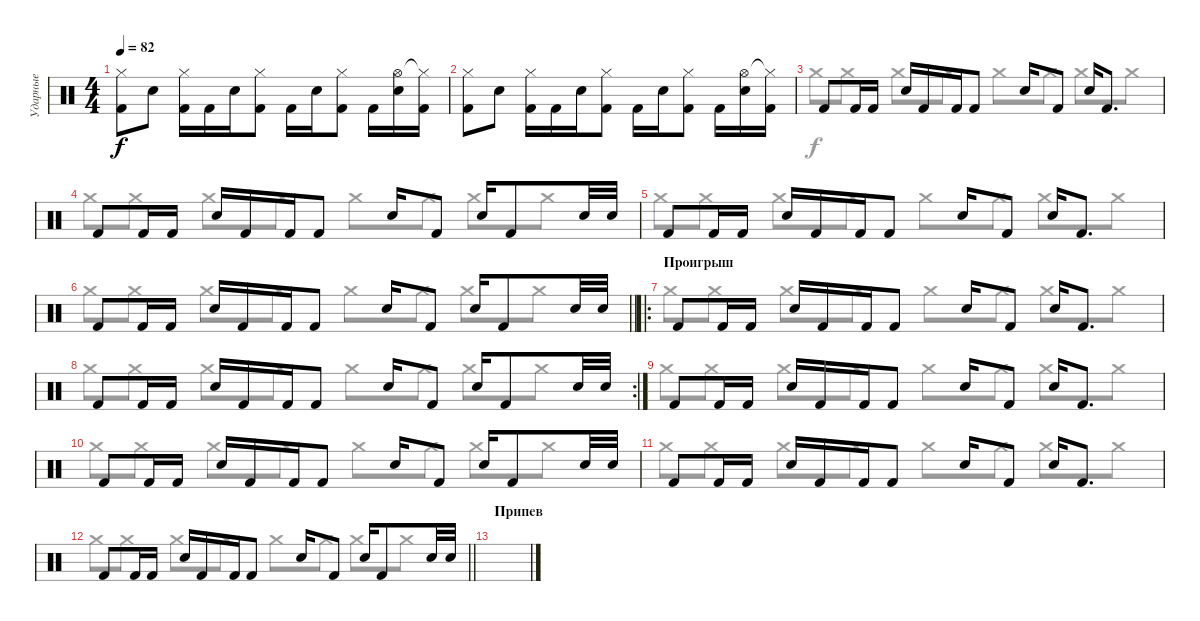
\track ("Ударные" "Ударные") {instrument percussion}
\staff {score}
\articulation defaults
\voice
\ts (4 4)
\tempo 82
\clef neutral
\ks c
("Hi-Hat (closed)" "Kick (hit) 2").8{dy f} "Snare (hit) 2".8 ("Hi-Hat (closed)" "Kick (hit) 2").16 "Kick (hit) 2".16 "Snare (hit) 2".16 ("Hi-Hat (closed)" "Kick (hit) 2").8 "Kick (hit) 2".16 "Snare (hit) 2".16 ("Hi-Hat (closed)" "Kick (hit) 2").8 "Kick (hit) 2".16 ("Hi-Hat (open)" "Snare (hit) 2").16 ("Hi-Hat (closed)"{t} "Kick (hit) 2").16 |
("Hi-Hat (closed)" "Kick (hit) 2").8 "Snare (hit) 2".8 ("Hi-Hat (closed)" "Kick (hit) 2").16 "Kick (hit) 2".16 "Snare (hit) 2".16 ("Hi-Hat (closed)" "Kick (hit) 2").8 "Kick (hit) 2".16 "Snare (hit) 2".16 ("Hi-Hat (closed)" "Kick (hit) 2").8 "Kick (hit) 2".16 ("Hi-Hat (open)" "Snare (hit) 2").16 ("Hi-Hat (closed)"{t} "Kick (hit) 2").16 |
"Kick (hit) 2".8 "Kick (hit) 2".16 "Kick (hit) 2".16 "Snare (hit) 2".16 "Kick (hit) 2".16 "Kick (hit) 2".16 "Kick (hit) 2".8 "Snare (hit) 2".16 "Kick (hit) 2".8 "Snare (hit) 2".16 "Kick (hit) 2".8{d} |
"Kick (hit) 2".8 "Kick (hit) 2".16 "Kick (hit) 2".16 "Snare (hit) 2".16 "Kick (hit) 2".16 "Kick (hit) 2".16 "Kick (hit) 2".8 "Snare (hit) 2".16 "Kick (hit) 2".8 "Snare (hit) 2".16 "Kick (hit) 2".8 "Snare (hit) 2".32 "Snare (hit) 2".32 |
"Kick (hit) 2".8 "Kick (hit) 2".16 "Kick (hit) 2".16 "Snare (hit) 2".16 "Kick (hit) 2".16 "Kick (hit) 2".16 "Kick (hit) 2".8 "Snare (hit) 2".16 "Kick (hit) 2".8 "Snare (hit) 2".16 "Kick (hit) 2".8{d} |
\barLineRight lightlight "Kick (hit) 2".8 "Kick (hit) 2".16 "Kick (hit) 2".16 "Snare (hit) 2".16 "Kick (hit) 2".16 "Kick (hit) 2".16 "Kick (hit) 2".8 "Snare (hit) 2".16 "Kick (hit) 2".8 "Snare (hit) 2".16 "Kick (hit) 2".8 "Snare (hit) 2".32 "Snare (hit) 2".32
|
\ro
\section ("" "Проигрыш")
"Kick (hit) 2".8 "Kick (hit) 2".16 "Kick (hit) 2".16 "Snare (hit) 2".16 "Kick (hit) 2".16 "Kick (hit) 2".16 "Kick (hit) 2".8 "Snare (hit) 2".16 "Kick (hit) 2".8 "Snare (hit) 2".16 "Kick (hit) 2".8{d} |
\rc 2 "Kick (hit) 2".8 "Kick (hit) 2".16 "Kick (hit) 2".16 "Snare (hit) 2".16 "Kick (hit) 2".16 "Kick (hit) 2".16 "Kick (hit) 2".8 "Snare (hit) 2".16 "Kick (hit) 2".8 "Snare (hit) 2".16 "Kick (hit) 2".8 "Snare (hit) 2".32 "Snare (hit) 2".32
|
"Kick (hit) 2".8 "Kick (hit) 2".16 "Kick (hit) 2".16 "Snare (hit) 2".16 "Kick (hit) 2".16 "Kick (hit) 2".16 "Kick (hit) 2".8 "Snare (hit) 2".16 "Kick (hit) 2".8 "Snare (hit) 2".16 "Kick (hit) 2".8{d} |
"Kick (hit) 2".8 "Kick (hit) 2".16 "Kick (hit) 2".16 "Snare (hit) 2".16 "Kick (hit) 2".16 "Kick (hit) 2".16 "Kick (hit) 2".8 "Snare (hit) 2".16 "Kick (hit) 2".8 "Snare (hit) 2".16 "Kick (hit) 2".8 "Snare (hit) 2".32 "Snare (hit) 2".32 |
"Kick (hit) 2".8 "Kick (hit) 2".16 "Kick (hit) 2".16 "Snare (hit) 2".16 "Kick (hit) 2".16 "Kick (hit) 2".16 "Kick (hit) 2".8 "Snare (hit) 2".16 "Kick (hit) 2".8 "Snare (hit) 2".16 "Kick (hit) 2".8{d} |
\barLineRight lightlight "Kick (hit) 2".8 "Kick (hit) 2".16 "Kick (hit) 2".16 "Snare (hit) 2".16 "Kick (hit) 2".16 "Kick (hit) 2".16 "Kick (hit) 2".8 "Snare (hit) 2".16 "Kick (hit) 2".8 "Snare (hit) 2".16 "Kick (hit) 2".8 "Snare (hit) 2".32 "Snare (hit) 2".32
|
\section ("" "Припев")
|
|
|
\voice
\clef neutral
\ottava regular
\simile none
\ks c
|
|
"Crash medium (hit)".8 "Crash medium (hit)".8 "Crash medium (hit)".8 "Crash medium (hit)".8 "Crash medium (hit)".8 "Crash medium (hit)".8 "Crash medium (hit)".8 "Crash medium (hit)".8 |
"Crash medium (hit)".8 "Crash medium (hit)".8 "Crash medium (hit)".8 "Crash medium (hit)".8 "Crash medium (hit)".8 "Crash medium (hit)".8 "Crash medium (hit)".8 "Crash medium (hit)".8 |
"Crash medium (hit)".8 "Crash medium (hit)".8 "Crash medium (hit)".8 "Crash medium (hit)".8 "Crash medium (hit)".8 "Crash medium (hit)".8 "Crash medium (hit)".8 "Crash medium (hit)".8 |
\barLineRight lightlight "Crash medium (hit)".8 "Crash medium (hit)".8 "Crash medium (hit)".8 "Crash medium (hit)".8 "Crash medium (hit)".8 "Crash medium (hit)".8 "Crash medium (hit)".8 "Crash medium (hit)".8
|
"Crash medium (hit)".8 "Crash medium (hit)".8 "Crash medium (hit)".8 "Crash medium (hit)".8 "Crash medium (hit)".8 "Crash medium (hit)".8 "Crash medium (hit)".8 "Crash medium (hit)".8 |
"Crash medium (hit)".8 "Crash medium (hit)".8 "Crash medium (hit)".8 "Crash medium (hit)".8 "Crash medium (hit)".8 "Crash medium (hit)".8 "Crash medium (hit)".8 "Crash medium (hit)".8 |
"Crash medium (hit)".8 "Crash medium (hit)".8 "Crash medium (hit)".8 "Crash medium (hit)".8 "Crash medium (hit)".8 "Crash medium (hit)".8 "Crash medium (hit)".8 "Crash medium (hit)".8 |
"Crash medium (hit)".8 "Crash medium (hit)".8 "Crash medium (hit)".8 "Crash medium (hit)".8 "Crash medium (hit)".8 "Crash medium (hit)".8 "Crash medium (hit)".8 "Crash medium (hit)".8 |
"Crash medium (hit)".8 "Crash medium (hit)".8 "Crash medium (hit)".8 "Crash medium (hit)".8 "Crash medium (hit)".8 "Crash medium (hit)".8 "Crash medium (hit)".8 "Crash medium (hit)".8 |
\barLineRight lightlight "Crash medium (hit)".8 "Crash medium (hit)".8 "Crash medium (hit)".8 "Crash medium (hit)".8 "Crash medium (hit)".8 "Crash medium (hit)".8 "Crash medium (hit)".8 "Crash medium (hit)".8
|
|
|
|
